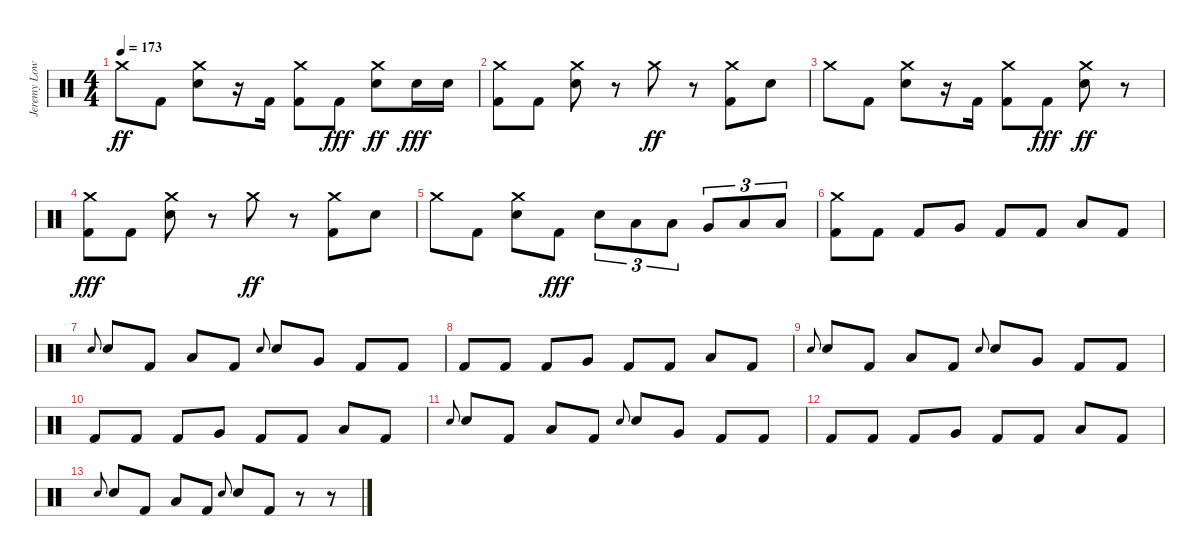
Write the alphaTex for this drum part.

\track ("Jeremy Lowery" "Jeremy Low") {instrument percussion}
\staff {score}
\articulation defaults
\ts (4 4)
\tempo 173
\clef neutral
\ks c "Crash medium (hit)".8{dy ff} "Kick (hit) 2".8
("Crash medium (hit)" "Electric Snare (hit)").8 r.16 "Kick (hit) 2".16 ("Crash medium (hit)" "Kick (hit) 2").8 "Kick (hit) 2".8{dy fff} ("Crash medium (hit)" "Electric Snare (hit)").8{dy ff} "Electric Snare (hit)".16{dy fff} "Electric Snare (hit)".16 |
("Crash medium (hit)" "Kick (hit) 2").8 "Kick (hit) 2".8 ("Crash medium (hit)" "Electric Snare (hit)").8 r.8 "Crash medium (hit)".8{dy ff} r.8 ("Crash medium (hit)" "Kick (hit) 2").8 "Electric Snare (hit)".8 |
"Crash medium (hit)".8 "Kick (hit) 2".8 ("Crash medium (hit)" "Electric Snare (hit)").8 r.16 "Kick (hit) 2".16 ("Crash medium (hit)" "Kick (hit) 2").8 "Kick (hit) 2".8{dy fff} ("Crash medium (hit)" "Electric Snare (hit)").8{dy ff} r.8 |
("Crash medium (hit)" "Kick (hit) 2").8{dy fff} "Kick (hit) 2".8 ("Crash medium (hit)" "Electric Snare (hit)").8 r.8 "Crash medium (hit)".8{dy ff} r.8 ("Crash medium (hit)" "Kick (hit) 2").8 "Electric Snare (hit)".8 |
"Crash medium (hit)".8 "Kick (hit) 2".8 ("Crash medium (hit)" "Electric Snare (hit)").8 "Kick (hit) 2".8{dy fff} "Electric Snare (hit)".8{tu (3 2)} "Low Tom (hit)".8{tu (3 2)} "Low Tom (hit)".8{tu (3 2)} "Very Low Tom (hit)".8{tu (3 2)} "Low Floor Tom (hit)".8{tu (3 2)} "Low Floor Tom (hit)".8{tu (3 2)} |
("Crash medium (hit)" "Kick (hit) 2").8 "Kick (hit) 2".8 "Kick (hit) 2".8 "Very Low Tom (hit)".8 "Kick (hit) 2".8 "Kick (hit) 2".8 "Low Floor Tom (hit)".8 "Kick (hit) 2".8 |
"Electric Snare (hit)".8{gr onbeat} "Electric Snare (hit)".8 "Kick (hit) 2".8 "Low Floor Tom (hit)".8 "Kick (hit) 2".8 "Electric Snare (hit)".8{gr onbeat} "Electric Snare (hit)".8 "Very Low Tom (hit)".8 "Kick (hit) 2".8 "Kick (hit) 2".8 |
"Kick (hit) 2".8 "Kick (hit) 2".8 "Kick (hit) 2".8 "Very Low Tom (hit)".8 "Kick (hit) 2".8 "Kick (hit) 2".8 "Low Floor Tom (hit)".8 "Kick (hit) 2".8 |
"Electric Snare (hit)".8{gr onbeat} "Electric Snare (hit)".8 "Kick (hit) 2".8 "Low Floor Tom (hit)".8 "Kick (hit) 2".8 "Electric Snare (hit)".8{gr onbeat} "Electric Snare (hit)".8 "Very Low Tom (hit)".8 "Kick (hit) 2".8 "Kick (hit) 2".8 |
"Kick (hit) 2".8 "Kick (hit) 2".8 "Kick (hit) 2".8 "Very Low Tom (hit)".8 "Kick (hit) 2".8 "Kick (hit) 2".8 "Low Floor Tom (hit)".8 "Kick (hit) 2".8 |
"Electric Snare (hit)".8{gr onbeat} "Electric Snare (hit)".8 "Kick (hit) 2".8 "Low Floor Tom (hit)".8 "Kick (hit) 2".8 "Electric Snare (hit)".8{gr onbeat} "Electric Snare (hit)".8 "Very Low Tom (hit)".8 "Kick (hit) 2".8 "Kick (hit) 2".8 |
"Kick (hit) 2".8 "Kick (hit) 2".8 "Kick (hit) 2".8 "Very Low Tom (hit)".8 "Kick (hit) 2".8 "Kick (hit) 2".8 "Low Floor Tom (hit)".8 "Kick (hit) 2".8 |
"Electric Snare (hit)".8{gr onbeat} "Electric Snare (hit)".8 "Kick (hit) 2".8 "Low Floor Tom (hit)".8 "Kick (hit) 2".8 "Electric Snare (hit)".8{gr onbeat} "Electric Snare (hit)".8 "Kick (hit) 2".8 r.8 r.8
